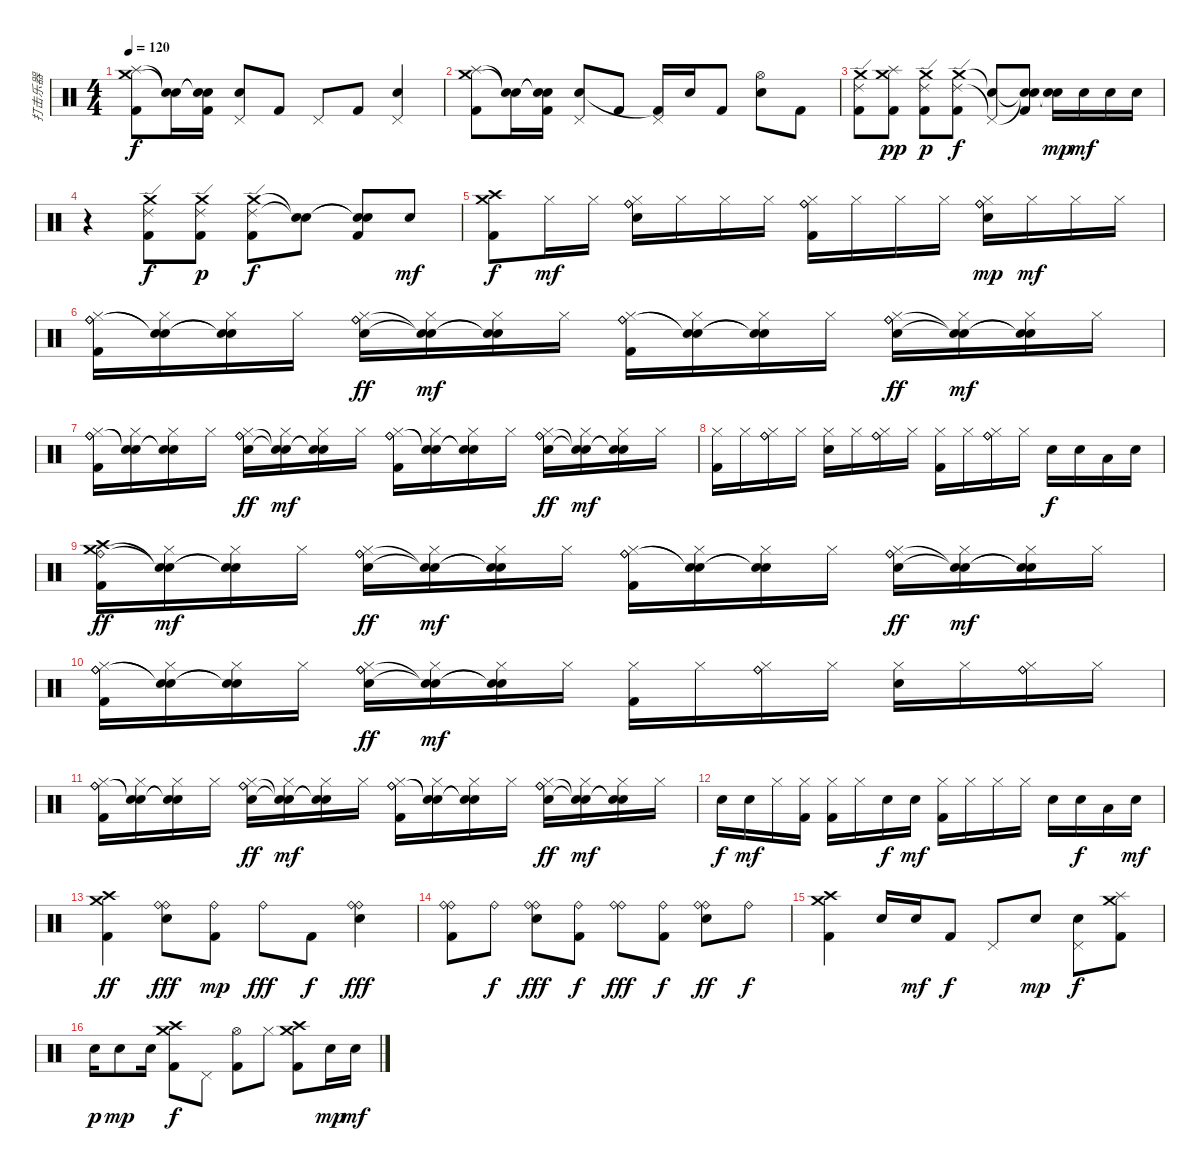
\track ("打击乐器" "打击乐器") {instrument percussion}
\staff {score}
\articulation defaults
\ts (4 4)
\tempo 120
\clef neutral
\ks c
("Crash medium (hit)" "Splash (hit)" "Kick (hit) 2").8{dy f} ("Snare (hit)"{t} "Snare (hit)"{t}).16 ("Snare (hit)"{t} "Snare (hit)"{t} "Kick (hit) 2").16 ("Pedal Hi-Hat (hit)" "Metronome (bell)").8 "Kick (hit) 2".8 "Pedal Hi-Hat (hit)".8 "Kick (hit) 2".8 ("Pedal Hi-Hat (hit)" "Metronome (bell)").4 |
("Crash medium (hit)" "Splash (hit)" "Kick (hit) 2").8 ("Snare (hit)"{t} "Snare (hit)"{t}).16 ("Snare (hit)"{t} "Snare (hit)"{t} "Kick (hit) 2").16 ("Pedal Hi-Hat (hit)" "Metronome (bell)").8 "Kick (hit) 2".8 ("Pedal Hi-Hat (hit)" "Kick (hit) 2"{t}).16 "Metronome (bell)".16 "Kick (hit) 2".8 ("Hi-Hat (open)" "Metronome (bell)").8 "Kick (hit) 2".8 |
("Crash medium (hit)" "Ride (edge) 2" "Kick (hit) 2").8 ("Crash medium (hit)" "Splash (hit)" "Kick (hit) 2").8{dy pp} ("Crash medium (hit)" "Ride (edge) 2" "Kick (hit) 2").8{dy p} ("Crash medium (hit)" "Ride (edge) 2" "Kick (hit) 2").8{dy f} ("Snare (hit)"{t} "Pedal Hi-Hat (hit)"{t}).8 ("Snare (hit)"{t} "Snare (hit)"{t} "Kick (hit) 2").8 ("Snare (hit)"{t} "Metronome (bell)").16{dy mp} "Metronome (bell)".16{dy mf} "Metronome (bell)".16 "Metronome (bell)".16 |
r.4 ("Crash medium (hit)" "Ride (edge) 2" "Kick (hit) 2").8{dy f} ("Crash medium (hit)" "Ride (edge) 2" "Kick (hit) 2").8{dy p} ("Crash medium (hit)" "Ride (edge) 2" "Kick (hit) 2").8{dy f} ("Snare (hit)"{t} "Snare (hit)"{t}).8 ("Snare (hit)"{t} "Snare (hit)"{t} "Kick (hit) 2").8 "Metronome (bell)".8{dy mf} |
("Crash medium (hit)" "Crash high (hit)" "Kick (hit) 2").8{dy f} "Hi-Hat (closed)".16{dy mf} "Hi-Hat (closed)".16 ("Ride (bell)" "Hi-Hat (closed)" "Metronome (bell)" "Ride (bell)").16 "Hi-Hat (closed)".16 "Hi-Hat (closed)".16 "Hi-Hat (closed)".16 ("Ride (bell)" "Hi-Hat (closed)" "Ride (bell)" "Kick (hit) 2").16 "Hi-Hat (closed)".16 "Hi-Hat (closed)".16 "Hi-Hat (closed)".16 ("Ride (bell)" "Hi-Hat (closed)" "Metronome (bell)" "Ride (bell)").16{dy mp} "Hi-Hat (closed)".16{dy mf} "Hi-Hat (closed)".16 "Hi-Hat (closed)".16 |
("Ride (bell)" "Hi-Hat (closed)" "Ride (bell)" "Kick (hit) 2").16 ("Snare (hit)"{t} "Hi-Hat (closed)" "Snare (hit)"{t}).16 ("Snare (hit)"{t} "Hi-Hat (closed)" "Snare (hit)"{t}).16 "Hi-Hat (closed)".16 ("Ride (bell)" "Hi-Hat (closed)" "Metronome (bell)" "Ride (bell)").16{dy ff} ("Snare (hit)"{t} "Hi-Hat (closed)" "Snare (hit)"{t}).16{dy mf} ("Snare (hit)"{t} "Hi-Hat (closed)" "Snare (hit)"{t}).16 "Hi-Hat (closed)".16 ("Ride (bell)" "Hi-Hat (closed)" "Ride (bell)" "Kick (hit) 2").16 ("Snare (hit)"{t} "Hi-Hat (closed)" "Snare (hit)"{t}).16 ("Snare (hit)"{t} "Hi-Hat (closed)" "Snare (hit)"{t}).16 "Hi-Hat (closed)".16 ("Ride (bell)" "Hi-Hat (closed)" "Metronome (bell)" "Ride (bell)").16{dy ff} ("Snare (hit)"{t} "Hi-Hat (closed)" "Snare (hit)"{t}).16{dy mf} ("Snare (hit)"{t} "Hi-Hat (closed)" "Snare (hit)"{t}).16 "Hi-Hat (closed)".16 |
("Ride (bell)" "Hi-Hat (closed)" "Ride (bell)" "Kick (hit) 2").16 ("Snare (hit)"{t} "Hi-Hat (closed)" "Snare (hit)"{t}).16 ("Snare (hit)"{t} "Hi-Hat (closed)" "Snare (hit)"{t}).16 "Hi-Hat (closed)".16 ("Ride (bell)" "Hi-Hat (closed)" "Metronome (bell)" "Ride (bell)").16{dy ff} ("Snare (hit)"{t} "Hi-Hat (closed)" "Snare (hit)"{t}).16{dy mf} ("Snare (hit)"{t} "Hi-Hat (closed)" "Snare (hit)"{t}).16 "Hi-Hat (closed)".16 ("Ride (bell)" "Hi-Hat (closed)" "Ride (bell)" "Kick (hit) 2").16 ("Snare (hit)"{t} "Hi-Hat (closed)" "Snare (hit)"{t}).16 ("Snare (hit)"{t} "Hi-Hat (closed)" "Snare (hit)"{t}).16 "Hi-Hat (closed)".16 ("Ride (bell)" "Hi-Hat (closed)" "Metronome (bell)" "Ride (bell)").16{dy ff} ("Snare (hit)"{t} "Hi-Hat (closed)" "Snare (hit)"{t}).16{dy mf} ("Snare (hit)"{t} "Hi-Hat (closed)" "Snare (hit)"{t}).16 "Hi-Hat (closed)".16 |
("Hi-Hat (closed)" "Kick (hit) 2").16 "Hi-Hat (closed)".16 ("Ride (bell)" "Hi-Hat (closed)" "Ride (bell)").16 "Hi-Hat (closed)".16 ("Hi-Hat (closed)" "Metronome (bell)").16 "Hi-Hat (closed)".16 ("Ride (bell)" "Hi-Hat (closed)" "Ride (bell)").16 "Hi-Hat (closed)".16 ("Hi-Hat (closed)" "Kick (hit) 2").16 "Hi-Hat (closed)".16 ("Ride (bell)" "Hi-Hat (closed)" "Ride (bell)").16 "Hi-Hat (closed)".16 "Metronome (bell)".16{dy f} "Metronome (bell)".16 "Low Floor Tom (hit)".16 "Metronome (bell)".16 |
("Crash medium (hit)" "Crash high (hit)" "Ride (bell)" "Kick (hit) 2").16{dy ff} ("Snare (hit)"{t} "Hi-Hat (closed)" "Snare (hit)"{t}).16{dy mf} ("Snare (hit)"{t} "Hi-Hat (closed)" "Snare (hit)"{t}).16 "Hi-Hat (closed)".16 ("Ride (bell)" "Hi-Hat (closed)" "Metronome (bell)" "Ride (bell)").16{dy ff} ("Snare (hit)"{t} "Hi-Hat (closed)" "Snare (hit)"{t}).16{dy mf} ("Snare (hit)"{t} "Hi-Hat (closed)" "Snare (hit)"{t}).16 "Hi-Hat (closed)".16 ("Ride (bell)" "Hi-Hat (closed)" "Ride (bell)" "Kick (hit) 2").16 ("Snare (hit)"{t} "Hi-Hat (closed)" "Snare (hit)"{t}).16 ("Snare (hit)"{t} "Hi-Hat (closed)" "Snare (hit)"{t}).16 "Hi-Hat (closed)".16 ("Ride (bell)" "Hi-Hat (closed)" "Metronome (bell)" "Ride (bell)").16{dy ff} ("Snare (hit)"{t} "Hi-Hat (closed)" "Snare (hit)"{t}).16{dy mf} ("Snare (hit)"{t} "Hi-Hat (closed)" "Snare (hit)"{t}).16 "Hi-Hat (closed)".16 |
("Ride (bell)" "Hi-Hat (closed)" "Ride (bell)" "Kick (hit) 2").16 ("Snare (hit)"{t} "Hi-Hat (closed)" "Snare (hit)"{t}).16 ("Snare (hit)"{t} "Hi-Hat (closed)" "Snare (hit)"{t}).16 "Hi-Hat (closed)".16 ("Ride (bell)" "Hi-Hat (closed)" "Metronome (bell)" "Ride (bell)").16{dy ff} ("Snare (hit)"{t} "Hi-Hat (closed)" "Snare (hit)"{t}).16{dy mf} ("Snare (hit)"{t} "Hi-Hat (closed)" "Snare (hit)"{t}).16 "Hi-Hat (closed)".16 ("Hi-Hat (closed)" "Kick (hit) 2").16 "Hi-Hat (closed)".16 ("Ride (bell)" "Hi-Hat (closed)" "Ride (bell)").16 "Hi-Hat (closed)".16 ("Hi-Hat (closed)" "Metronome (bell)").16 "Hi-Hat (closed)".16 ("Ride (bell)" "Hi-Hat (closed)" "Ride (bell)").16 "Hi-Hat (closed)".16 |
("Ride (bell)" "Hi-Hat (closed)" "Ride (bell)" "Kick (hit) 2").16 ("Snare (hit)"{t} "Hi-Hat (closed)" "Snare (hit)"{t}).16 ("Snare (hit)"{t} "Hi-Hat (closed)" "Snare (hit)"{t}).16 "Hi-Hat (closed)".16 ("Ride (bell)" "Hi-Hat (closed)" "Metronome (bell)" "Ride (bell)").16{dy ff} ("Snare (hit)"{t} "Hi-Hat (closed)" "Snare (hit)"{t}).16{dy mf} ("Snare (hit)"{t} "Hi-Hat (closed)" "Snare (hit)"{t}).16 "Hi-Hat (closed)".16 ("Ride (bell)" "Hi-Hat (closed)" "Ride (bell)" "Kick (hit) 2").16 ("Snare (hit)"{t} "Hi-Hat (closed)" "Snare (hit)"{t}).16 ("Snare (hit)"{t} "Hi-Hat (closed)" "Snare (hit)"{t}).16 "Hi-Hat (closed)".16 ("Ride (bell)" "Hi-Hat (closed)" "Metronome (bell)" "Ride (bell)").16{dy ff} ("Snare (hit)"{t} "Hi-Hat (closed)" "Snare (hit)"{t}).16{dy mf} ("Snare (hit)"{t} "Hi-Hat (closed)" "Snare (hit)"{t}).16 "Hi-Hat (closed)".16 |
"Metronome (bell)".16{dy f} "Metronome (bell)".16{dy mf} "Hi-Hat (closed)".16 ("Hi-Hat (closed)" "Kick (hit) 2").16 ("Hi-Hat (closed)" "Kick (hit) 2").16 "Hi-Hat (closed)".16 "Metronome (bell)".16{dy f} "Metronome (bell)".16{dy mf} ("Hi-Hat (closed)" "Kick (hit) 2").16 "Hi-Hat (closed)".16 "Hi-Hat (closed)".16 "Hi-Hat (closed)".16 "Metronome (bell)".16 "Metronome (bell)".16{dy f} "Low Floor Tom (hit)".16 "Metronome (bell)".16{dy mf} |
("Crash medium (hit)" "Crash high (hit)" "Kick (hit) 2").4{dy ff} ("Ride (bell)" "Metronome (bell)" "Ride (bell)").8{dy fff} ("Ride (bell)" "Kick (hit) 2").8{dy mp} "Ride (bell)".8{dy fff} "Kick (hit) 2".8{dy f} ("Ride (bell)" "Metronome (bell)" "Ride (bell)").4{dy fff} |
("Ride (bell)" "Ride (bell)" "Kick (hit) 2").8 "Ride (bell)".8{dy f} ("Ride (bell)" "Metronome (bell)" "Ride (bell)").8{dy fff} ("Ride (bell)" "Kick (hit) 2").8{dy f} ("Ride (bell)" "Ride (bell)").8{dy fff} ("Ride (bell)" "Kick (hit) 2").8{dy f} ("Ride (bell)" "Metronome (bell)" "Ride (bell)").8{dy ff} "Ride (bell)".8{dy f} |
("Crash high (hit)" "Crash medium (hit)" "Kick (hit) 2").4 "Metronome (bell)".16 "Metronome (bell)".16{dy mf} "Kick (hit) 2".8{dy f} "Pedal Hi-Hat (hit)".8 "Metronome (bell)".8{dy mp} ("Pedal Hi-Hat (hit)" "Metronome (bell)").8{dy f} ("Crash medium (hit)" "Splash (hit)" "Kick (hit) 2").8 |
"Metronome (bell)".16{dy p} "Metronome (bell)".8{dy mp} "Metronome (bell)".16 ("Crash medium (hit)" "Crash high (hit)" "Kick (hit) 2").8{dy f} "Pedal Hi-Hat (hit)".8 ("Hi-Hat (open)" "Kick (hit) 2").8 "Hi-Hat (closed)".8 ("Crash medium (hit)" "Crash high (hit)" "Kick (hit) 2").8 "Metronome (bell)".16{dy mp} "Metronome (bell)".16{dy mf}
